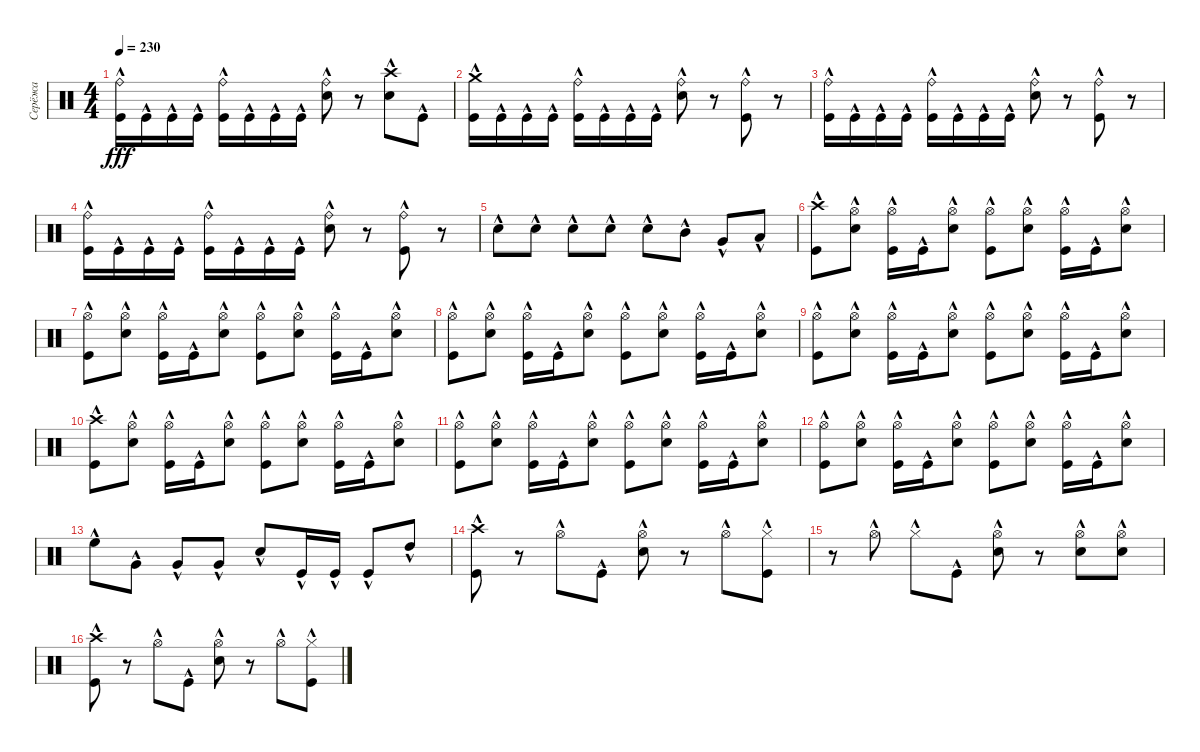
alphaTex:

\track ("Серёжа" "Серёжа") {instrument percussion}
\staff {score}
\articulation defaults
\ts (4 4)
\tempo 230
\clef neutral
\ks c
("Ride (bell)" "Kick (hit)"{hac}).16{dy fff} "Kick (hit)"{hac}.16 "Kick (hit)"{hac}.16 "Kick (hit)"{hac}.16 ("Ride (bell)" "Kick (hit)"{hac}).16 "Kick (hit)"{hac}.16 "Kick (hit)"{hac}.16 "Kick (hit)"{hac}.16 ("Ride (bell)" "Snare (hit) 2"{hac}).8 r.8 ("Crash high (hit)"{hac} "Snare (hit) 2"{hac}).8 "Kick (hit)"{hac}.8 |
("Crash medium (hit)"{hac} "Kick (hit)"{hac}).16 "Kick (hit)"{hac}.16 "Kick (hit)"{hac}.16 "Kick (hit)"{hac}.16 ("Ride (bell)" "Kick (hit)"{hac}).16 "Kick (hit)"{hac}.16 "Kick (hit)"{hac}.16 "Kick (hit)"{hac}.16 ("Ride (bell)" "Snare (hit) 2"{hac}).8 r.8 ("Ride (bell)" "Kick (hit)"{hac}).8 r.8 |
("Ride (bell)" "Kick (hit)"{hac}).16 "Kick (hit)"{hac}.16 "Kick (hit)"{hac}.16 "Kick (hit)"{hac}.16 ("Ride (bell)" "Kick (hit)"{hac}).16 "Kick (hit)"{hac}.16 "Kick (hit)"{hac}.16 "Kick (hit)"{hac}.16 ("Ride (bell)" "Snare (hit) 2"{hac}).8 r.8 ("Ride (bell)" "Kick (hit)"{hac}).8 r.8 |
("Ride (bell)" "Kick (hit)"{hac}).16 "Kick (hit)"{hac}.16 "Kick (hit)"{hac}.16 "Kick (hit)"{hac}.16 ("Ride (bell)" "Kick (hit)"{hac}).16 "Kick (hit)"{hac}.16 "Kick (hit)"{hac}.16 "Kick (hit)"{hac}.16 ("Ride (bell)" "Snare (hit) 2"{hac}).8 r.8 ("Ride (bell)" "Kick (hit)"{hac}).8 r.8 |
"Snare (hit) 2"{hac}.8 "Snare (hit) 2"{hac}.8 "Snare (hit) 2"{hac}.8 "Snare (hit) 2"{hac}.8 "Snare (hit) 2"{hac}.8 "Mid Tom (hit)"{hac}.8 "Very Low Tom (hit)"{hac}.8 "Low Tom (hit)"{hac}.8 |
("Crash high (hit)"{hac} "Kick (hit)"{hac}).8 ("Hi-Hat (open)" "Snare (hit) 2"{hac}).8 ("Hi-Hat (open)" "Kick (hit)"{hac}).16 "Kick (hit)"{hac}.16 ("Hi-Hat (open)" "Snare (hit) 2"{hac}).8 ("Hi-Hat (open)" "Kick (hit)"{hac}).8 ("Hi-Hat (open)" "Snare (hit) 2"{hac}).8 ("Hi-Hat (open)" "Kick (hit)"{hac}).16 "Kick (hit)"{hac}.16 ("Hi-Hat (open)" "Snare (hit) 2"{hac}).8 |
("Hi-Hat (open)" "Kick (hit)"{hac}).8 ("Hi-Hat (open)" "Snare (hit) 2"{hac}).8 ("Hi-Hat (open)" "Kick (hit)"{hac}).16 "Kick (hit)"{hac}.16 ("Hi-Hat (open)" "Snare (hit) 2"{hac}).8 ("Hi-Hat (open)" "Kick (hit)"{hac}).8 ("Hi-Hat (open)" "Snare (hit) 2"{hac}).8 ("Hi-Hat (open)" "Kick (hit)"{hac}).16 "Kick (hit)"{hac}.16 ("Hi-Hat (open)" "Snare (hit) 2"{hac}).8 |
("Hi-Hat (open)" "Kick (hit)"{hac}).8 ("Hi-Hat (open)" "Snare (hit) 2"{hac}).8 ("Hi-Hat (open)" "Kick (hit)"{hac}).16 "Kick (hit)"{hac}.16 ("Hi-Hat (open)" "Snare (hit) 2"{hac}).8 ("Hi-Hat (open)" "Kick (hit)"{hac}).8 ("Hi-Hat (open)" "Snare (hit) 2"{hac}).8 ("Hi-Hat (open)" "Kick (hit)"{hac}).16 "Kick (hit)"{hac}.16 ("Hi-Hat (open)" "Snare (hit) 2"{hac}).8 |
("Hi-Hat (open)" "Kick (hit)"{hac}).8 ("Hi-Hat (open)" "Snare (hit) 2"{hac}).8 ("Hi-Hat (open)" "Kick (hit)"{hac}).16 "Kick (hit)"{hac}.16 ("Hi-Hat (open)" "Snare (hit) 2"{hac}).8 ("Hi-Hat (open)" "Kick (hit)"{hac}).8 ("Hi-Hat (open)" "Snare (hit) 2"{hac}).8 ("Hi-Hat (open)" "Kick (hit)"{hac}).16 "Kick (hit)"{hac}.16 ("Hi-Hat (open)" "Snare (hit) 2"{hac}).8 |
("Crash high (hit)"{hac} "Kick (hit)"{hac}).8 ("Hi-Hat (open)" "Snare (hit) 2"{hac}).8 ("Hi-Hat (open)" "Kick (hit)"{hac}).16 "Kick (hit)"{hac}.16 ("Hi-Hat (open)" "Snare (hit) 2"{hac}).8 ("Hi-Hat (open)" "Kick (hit)"{hac}).8 ("Hi-Hat (open)" "Snare (hit) 2"{hac}).8 ("Hi-Hat (open)" "Kick (hit)"{hac}).16 "Kick (hit)"{hac}.16 ("Hi-Hat (open)" "Snare (hit) 2"{hac}).8 |
("Hi-Hat (open)" "Kick (hit)"{hac}).8 ("Hi-Hat (open)" "Snare (hit) 2"{hac}).8 ("Hi-Hat (open)" "Kick (hit)"{hac}).16 "Kick (hit)"{hac}.16 ("Hi-Hat (open)" "Snare (hit) 2"{hac}).8 ("Hi-Hat (open)" "Kick (hit)"{hac}).8 ("Hi-Hat (open)" "Snare (hit) 2"{hac}).8 ("Hi-Hat (open)" "Kick (hit)"{hac}).16 "Kick (hit)"{hac}.16 ("Hi-Hat (open)" "Snare (hit) 2"{hac}).8 |
("Hi-Hat (open)" "Kick (hit)"{hac}).8 ("Hi-Hat (open)" "Snare (hit) 2"{hac}).8 ("Hi-Hat (open)" "Kick (hit)"{hac}).16 "Kick (hit)"{hac}.16 ("Hi-Hat (open)" "Snare (hit) 2"{hac}).8 ("Hi-Hat (open)" "Kick (hit)"{hac}).8 ("Hi-Hat (open)" "Snare (hit) 2"{hac}).8 ("Hi-Hat (open)" "Kick (hit)"{hac}).16 "Kick (hit)"{hac}.16 ("Hi-Hat (open)" "Snare (hit) 2"{hac}).8 |
"High Floor Tom (hit)"{hac}.8 "Very Low Tom (hit)"{hac}.8 "Very Low Tom (hit)"{hac}.8 "Very Low Tom (hit)"{hac}.8 "Snare (hit) 2"{hac}.8 "Kick (hit)"{hac}.16 "Kick (hit)"{hac}.16 "Kick (hit)"{hac}.8 "High Tom (hit)"{hac}.8 |
("Crash high (hit)"{hac} "Kick (hit)"{hac}).8 r.8 "Hi-Hat (open)"{hac}.8 "Kick (hit)"{hac}.8 ("Hi-Hat (open)" "Snare (hit) 2"{hac}).8 r.8 "Hi-Hat (open)"{hac}.8 ("Hi-Hat (closed)"{hac} "Kick (hit)"{hac}).8 |
r.8 "Hi-Hat (open)"{hac}.8 "Hi-Hat (closed)"{hac}.8 "Kick (hit)"{hac}.8 ("Hi-Hat (open)" "Snare (hit) 2"{hac}).8 r.8 ("Hi-Hat (open)" "Snare (hit) 2"{hac}).8 ("Hi-Hat (open)" "Snare (hit) 2"{hac}).8 |
("Crash high (hit)"{hac} "Kick (hit)"{hac}).8 r.8 "Hi-Hat (open)"{hac}.8 "Kick (hit)"{hac}.8 ("Hi-Hat (open)" "Snare (hit) 2"{hac}).8 r.8 "Hi-Hat (open)"{hac}.8 ("Hi-Hat (closed)"{hac} "Kick (hit)"{hac}).8
